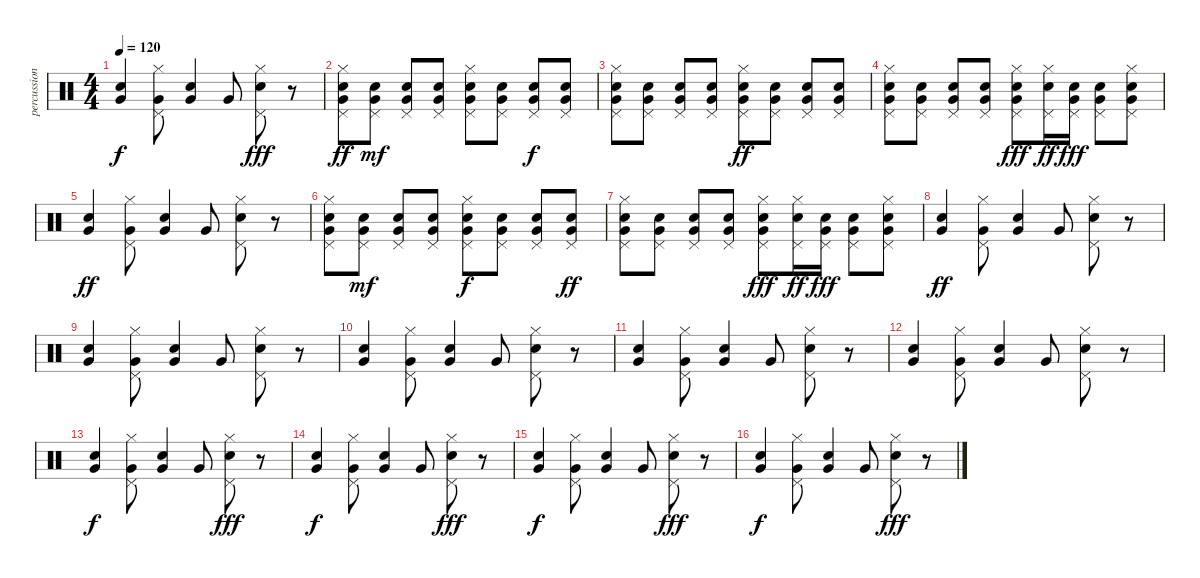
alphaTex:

\track ("percussion" "percussion") {instrument percussion}
\staff {score}
\articulation defaults
\ts (4 4)
\tempo 120
\clef neutral
\ks c
("Snare (hit) 2" "Very Low Tom (hit)").4{dy f} ("Pedal Hi-Hat (hit)" "Hi-Hat (closed)" "Very Low Tom (hit)").8 ("Snare (hit) 2" "Very Low Tom (hit)").4 "Very Low Tom (hit)".8 ("Pedal Hi-Hat (hit)" "Hi-Hat (closed)" "Snare (hit) 2").8{dy fff} r.8 |
("Pedal Hi-Hat (hit)" "Hi-Hat (closed)" "Snare (hit) 2" "Very Low Tom (hit)").8{dy ff} ("Pedal Hi-Hat (hit)" "Snare (hit) 2" "Very Low Tom (hit)").8{dy mf} ("Pedal Hi-Hat (hit)" "Snare (hit) 2" "Very Low Tom (hit)").8 ("Pedal Hi-Hat (hit)" "Snare (hit) 2" "Very Low Tom (hit)").8 ("Pedal Hi-Hat (hit)" "Hi-Hat (closed)" "Snare (hit) 2" "Very Low Tom (hit)").8 ("Pedal Hi-Hat (hit)" "Snare (hit) 2" "Very Low Tom (hit)").8 ("Pedal Hi-Hat (hit)" "Snare (hit) 2" "Very Low Tom (hit)").8{dy f} ("Pedal Hi-Hat (hit)" "Snare (hit) 2" "Very Low Tom (hit)").8 |
("Pedal Hi-Hat (hit)" "Hi-Hat (closed)" "Snare (hit) 2" "Very Low Tom (hit)").8 ("Pedal Hi-Hat (hit)" "Snare (hit) 2" "Very Low Tom (hit)").8 ("Pedal Hi-Hat (hit)" "Snare (hit) 2" "Very Low Tom (hit)").8 ("Pedal Hi-Hat (hit)" "Snare (hit) 2" "Very Low Tom (hit)").8 ("Pedal Hi-Hat (hit)" "Hi-Hat (closed)" "Snare (hit) 2" "Very Low Tom (hit)").8{dy ff} ("Pedal Hi-Hat (hit)" "Snare (hit) 2" "Very Low Tom (hit)").8 ("Pedal Hi-Hat (hit)" "Snare (hit) 2" "Very Low Tom (hit)").8 ("Pedal Hi-Hat (hit)" "Snare (hit) 2" "Very Low Tom (hit)").8 |
("Pedal Hi-Hat (hit)" "Hi-Hat (closed)" "Snare (hit) 2" "Very Low Tom (hit)").8 ("Pedal Hi-Hat (hit)" "Snare (hit) 2" "Very Low Tom (hit)").8 ("Pedal Hi-Hat (hit)" "Snare (hit) 2" "Very Low Tom (hit)").8 ("Pedal Hi-Hat (hit)" "Snare (hit) 2" "Very Low Tom (hit)").8 ("Pedal Hi-Hat (hit)" "Hi-Hat (closed)" "Snare (hit) 2" "Very Low Tom (hit)").8{dy fff} ("Pedal Hi-Hat (hit)" "Hi-Hat (closed)" "Snare (hit) 2").16{dy ff} ("Pedal Hi-Hat (hit)" "Snare (hit) 2" "Very Low Tom (hit)").16{dy fff} ("Pedal Hi-Hat (hit)" "Snare (hit) 2" "Very Low Tom (hit)").8 ("Pedal Hi-Hat (hit)" "Hi-Hat (closed)" "Snare (hit) 2" "Very Low Tom (hit)").8 |
("Snare (hit) 2" "Very Low Tom (hit)").4{dy ff} ("Pedal Hi-Hat (hit)" "Hi-Hat (closed)" "Very Low Tom (hit)").8 ("Snare (hit) 2" "Very Low Tom (hit)").4 "Very Low Tom (hit)".8 ("Pedal Hi-Hat (hit)" "Hi-Hat (closed)" "Snare (hit) 2").8 r.8 |
("Pedal Hi-Hat (hit)" "Hi-Hat (closed)" "Snare (hit) 2" "Very Low Tom (hit)").8 ("Pedal Hi-Hat (hit)" "Snare (hit) 2" "Very Low Tom (hit)").8{dy mf} ("Pedal Hi-Hat (hit)" "Snare (hit) 2" "Very Low Tom (hit)").8 ("Pedal Hi-Hat (hit)" "Snare (hit) 2" "Very Low Tom (hit)").8 ("Pedal Hi-Hat (hit)" "Hi-Hat (closed)" "Snare (hit) 2" "Very Low Tom (hit)").8{dy f} ("Pedal Hi-Hat (hit)" "Snare (hit) 2" "Very Low Tom (hit)").8 ("Pedal Hi-Hat (hit)" "Snare (hit) 2" "Very Low Tom (hit)").8 ("Pedal Hi-Hat (hit)" "Snare (hit) 2" "Very Low Tom (hit)").8{dy ff} |
("Pedal Hi-Hat (hit)" "Hi-Hat (closed)" "Snare (hit) 2" "Very Low Tom (hit)").8 ("Pedal Hi-Hat (hit)" "Snare (hit) 2" "Very Low Tom (hit)").8 ("Pedal Hi-Hat (hit)" "Snare (hit) 2" "Very Low Tom (hit)").8 ("Pedal Hi-Hat (hit)" "Snare (hit) 2" "Very Low Tom (hit)").8 ("Pedal Hi-Hat (hit)" "Hi-Hat (closed)" "Snare (hit) 2" "Very Low Tom (hit)").8{dy fff} ("Pedal Hi-Hat (hit)" "Hi-Hat (closed)" "Snare (hit) 2").16{dy ff} ("Pedal Hi-Hat (hit)" "Snare (hit) 2" "Very Low Tom (hit)").16{dy fff} ("Pedal Hi-Hat (hit)" "Snare (hit) 2" "Very Low Tom (hit)").8 ("Pedal Hi-Hat (hit)" "Hi-Hat (closed)" "Snare (hit) 2" "Very Low Tom (hit)").8 |
("Snare (hit) 2" "Very Low Tom (hit)").4{dy ff} ("Pedal Hi-Hat (hit)" "Hi-Hat (closed)" "Very Low Tom (hit)").8 ("Snare (hit) 2" "Very Low Tom (hit)").4 "Very Low Tom (hit)".8 ("Pedal Hi-Hat (hit)" "Hi-Hat (closed)" "Snare (hit) 2").8 r.8 |
("Snare (hit) 2" "Very Low Tom (hit)").4 ("Pedal Hi-Hat (hit)" "Hi-Hat (closed)" "Very Low Tom (hit)").8 ("Snare (hit) 2" "Very Low Tom (hit)").4 "Very Low Tom (hit)".8 ("Pedal Hi-Hat (hit)" "Hi-Hat (closed)" "Snare (hit) 2").8 r.8 |
("Snare (hit) 2" "Very Low Tom (hit)").4 ("Pedal Hi-Hat (hit)" "Hi-Hat (closed)" "Very Low Tom (hit)").8 ("Snare (hit) 2" "Very Low Tom (hit)").4 "Very Low Tom (hit)".8 ("Pedal Hi-Hat (hit)" "Hi-Hat (closed)" "Snare (hit) 2").8 r.8 |
("Snare (hit) 2" "Very Low Tom (hit)").4 ("Pedal Hi-Hat (hit)" "Hi-Hat (closed)" "Very Low Tom (hit)").8 ("Snare (hit) 2" "Very Low Tom (hit)").4 "Very Low Tom (hit)".8 ("Pedal Hi-Hat (hit)" "Hi-Hat (closed)" "Snare (hit) 2").8 r.8 |
("Snare (hit) 2" "Very Low Tom (hit)").4 ("Pedal Hi-Hat (hit)" "Hi-Hat (closed)" "Very Low Tom (hit)").8 ("Snare (hit) 2" "Very Low Tom (hit)").4 "Very Low Tom (hit)".8 ("Pedal Hi-Hat (hit)" "Hi-Hat (closed)" "Snare (hit) 2").8 r.8 |
("Snare (hit) 2" "Very Low Tom (hit)").4{dy f} ("Pedal Hi-Hat (hit)" "Hi-Hat (closed)" "Very Low Tom (hit)").8 ("Snare (hit) 2" "Very Low Tom (hit)").4 "Very Low Tom (hit)".8 ("Pedal Hi-Hat (hit)" "Hi-Hat (closed)" "Snare (hit) 2").8{dy fff} r.8 |
("Snare (hit) 2" "Very Low Tom (hit)").4{dy f} ("Pedal Hi-Hat (hit)" "Hi-Hat (closed)" "Very Low Tom (hit)").8 ("Snare (hit) 2" "Very Low Tom (hit)").4 "Very Low Tom (hit)".8 ("Pedal Hi-Hat (hit)" "Hi-Hat (closed)" "Snare (hit) 2").8{dy fff} r.8 |
("Snare (hit) 2" "Very Low Tom (hit)").4{dy f} ("Pedal Hi-Hat (hit)" "Hi-Hat (closed)" "Very Low Tom (hit)").8 ("Snare (hit) 2" "Very Low Tom (hit)").4 "Very Low Tom (hit)".8 ("Pedal Hi-Hat (hit)" "Hi-Hat (closed)" "Snare (hit) 2").8{dy fff} r.8 |
("Snare (hit) 2" "Very Low Tom (hit)").4{dy f} ("Pedal Hi-Hat (hit)" "Hi-Hat (closed)" "Very Low Tom (hit)").8 ("Snare (hit) 2" "Very Low Tom (hit)").4 "Very Low Tom (hit)".8 ("Pedal Hi-Hat (hit)" "Hi-Hat (closed)" "Snare (hit) 2").8{dy fff} r.8
